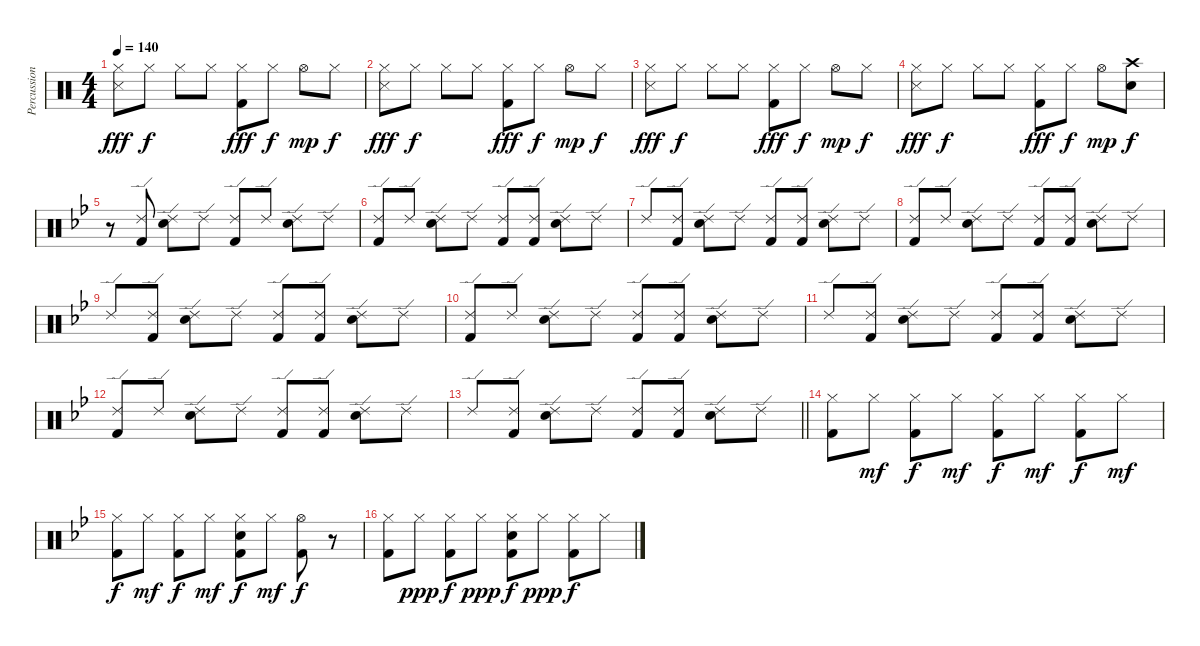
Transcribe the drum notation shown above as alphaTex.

\track ("Percussion" "Percussion") {instrument percussion}
\staff {score}
\articulation defaults
\ts (4 4)
\tempo 140
\clef neutral
\ks c
("Hi-Hat (closed)" "Snare (side stick) 3").8{dy fff} "Hi-Hat (closed)".8{dy f} "Hi-Hat (closed)".8 "Hi-Hat (closed)".8 ("Hi-Hat (closed)" "Kick (hit) 2").8{dy fff} "Hi-Hat (closed)".8{dy f} "Hi-Hat (open)".8{dy mp} "Hi-Hat (closed)".8{dy f} |
("Hi-Hat (closed)" "Snare (side stick) 3").8{dy fff} "Hi-Hat (closed)".8{dy f} "Hi-Hat (closed)".8 "Hi-Hat (closed)".8 ("Hi-Hat (closed)" "Kick (hit) 2").8{dy fff} "Hi-Hat (closed)".8{dy f} "Hi-Hat (open)".8{dy mp} "Hi-Hat (closed)".8{dy f} |
("Hi-Hat (closed)" "Snare (side stick) 3").8{dy fff} "Hi-Hat (closed)".8{dy f} "Hi-Hat (closed)".8 "Hi-Hat (closed)".8 ("Hi-Hat (closed)" "Kick (hit) 2").8{dy fff} "Hi-Hat (closed)".8{dy f} "Hi-Hat (open)".8{dy mp} "Hi-Hat (closed)".8{dy f} |
("Hi-Hat (closed)" "Snare (side stick) 3").8{dy fff} "Hi-Hat (closed)".8{dy f} "Hi-Hat (closed)".8 "Hi-Hat (closed)".8 ("Hi-Hat (closed)" "Kick (hit) 2").8{dy fff} "Hi-Hat (closed)".8{dy f} "Hi-Hat (open)".8{dy mp} ("Crash high (hit)" "Electric Snare (hit)").8{dy f} |
\ks bb
r.8 ("Ride (edge) 2" "Kick (hit) 2").8 ("Ride (edge) 2" "Electric Snare (hit)").8 "Ride (edge) 2".8 ("Ride (edge) 2" "Kick (hit) 2").8 "Ride (edge) 2".8 ("Ride (edge) 2" "Electric Snare (hit)").8 "Ride (edge) 2".8 |
("Ride (edge) 2" "Kick (hit) 2").8 "Ride (edge) 2".8 ("Ride (edge) 2" "Electric Snare (hit)").8 "Ride (edge) 2".8 ("Ride (edge) 2" "Kick (hit) 2").8 ("Ride (edge) 2" "Kick (hit) 2").8 ("Ride (edge) 2" "Electric Snare (hit)").8 "Ride (edge) 2".8 |
"Ride (edge) 2".8 ("Ride (edge) 2" "Kick (hit) 2").8 ("Ride (edge) 2" "Electric Snare (hit)").8 "Ride (edge) 2".8 ("Ride (edge) 2" "Kick (hit) 2").8 ("Ride (edge) 2" "Kick (hit) 2").8 ("Ride (edge) 2" "Electric Snare (hit)").8 "Ride (edge) 2".8 |
("Ride (edge) 2" "Kick (hit) 2").8 "Ride (edge) 2".8 ("Ride (edge) 2" "Electric Snare (hit)").8 "Ride (edge) 2".8 ("Ride (edge) 2" "Kick (hit) 2").8 ("Ride (edge) 2" "Kick (hit) 2").8 ("Ride (edge) 2" "Electric Snare (hit)").8 "Ride (edge) 2".8 |
"Ride (edge) 2".8 ("Ride (edge) 2" "Kick (hit) 2").8 ("Ride (edge) 2" "Electric Snare (hit)").8 "Ride (edge) 2".8 ("Ride (edge) 2" "Kick (hit) 2").8 ("Ride (edge) 2" "Kick (hit) 2").8 ("Ride (edge) 2" "Electric Snare (hit)").8 "Ride (edge) 2".8 |
("Ride (edge) 2" "Kick (hit) 2").8 "Ride (edge) 2".8 ("Ride (edge) 2" "Electric Snare (hit)").8 "Ride (edge) 2".8 ("Ride (edge) 2" "Kick (hit) 2").8 ("Ride (edge) 2" "Kick (hit) 2").8 ("Ride (edge) 2" "Electric Snare (hit)").8 "Ride (edge) 2".8 |
"Ride (edge) 2".8 ("Ride (edge) 2" "Kick (hit) 2").8 ("Ride (edge) 2" "Electric Snare (hit)").8 "Ride (edge) 2".8 ("Ride (edge) 2" "Kick (hit) 2").8 ("Ride (edge) 2" "Kick (hit) 2").8 ("Ride (edge) 2" "Electric Snare (hit)").8 "Ride (edge) 2".8 |
("Ride (edge) 2" "Kick (hit) 2").8 "Ride (edge) 2".8 ("Ride (edge) 2" "Electric Snare (hit)").8 "Ride (edge) 2".8 ("Ride (edge) 2" "Kick (hit) 2").8 ("Ride (edge) 2" "Kick (hit) 2").8 ("Ride (edge) 2" "Electric Snare (hit)").8 "Ride (edge) 2".8 |
\barLineRight lightlight "Ride (edge) 2".8
("Ride (edge) 2" "Kick (hit) 2").8 ("Ride (edge) 2" "Electric Snare (hit)").8 "Ride (edge) 2".8 ("Ride (edge) 2" "Kick (hit) 2").8 ("Ride (edge) 2" "Kick (hit) 2").8 ("Ride (edge) 2" "Electric Snare (hit)").8 "Ride (edge) 2".8 |
("Hi-Hat (closed)" "Kick (hit) 2").8 "Hi-Hat (closed)".8{dy mf} ("Hi-Hat (closed)" "Kick (hit) 2").8{dy f} "Hi-Hat (closed)".8{dy mf} ("Hi-Hat (closed)" "Kick (hit) 2").8{dy f} "Hi-Hat (closed)".8{dy mf} ("Hi-Hat (closed)" "Kick (hit) 2").8{dy f} "Hi-Hat (closed)".8{dy mf} |
("Hi-Hat (closed)" "Kick (hit) 2").8{dy f} "Hi-Hat (closed)".8{dy mf} ("Hi-Hat (closed)" "Kick (hit) 2").8{dy f} "Hi-Hat (closed)".8{dy mf} ("Hi-Hat (closed)" "Electric Snare (hit)" "Kick (hit) 2").8{dy f} "Hi-Hat (closed)".8{dy mf} ("Hi-Hat (open)" "Kick (hit) 2").8{dy f} r.8 |
("Hi-Hat (closed)" "Kick (hit) 2").8 "Hi-Hat (closed)".8{dy ppp} ("Hi-Hat (closed)" "Kick (hit) 2").8{dy f} "Hi-Hat (closed)".8{dy ppp} ("Hi-Hat (closed)" "Electric Snare (hit)" "Kick (hit) 2").8{dy f} "Hi-Hat (closed)".8{dy ppp} ("Hi-Hat (closed)" "Kick (hit) 2").8{dy f} "Hi-Hat (closed)".8
